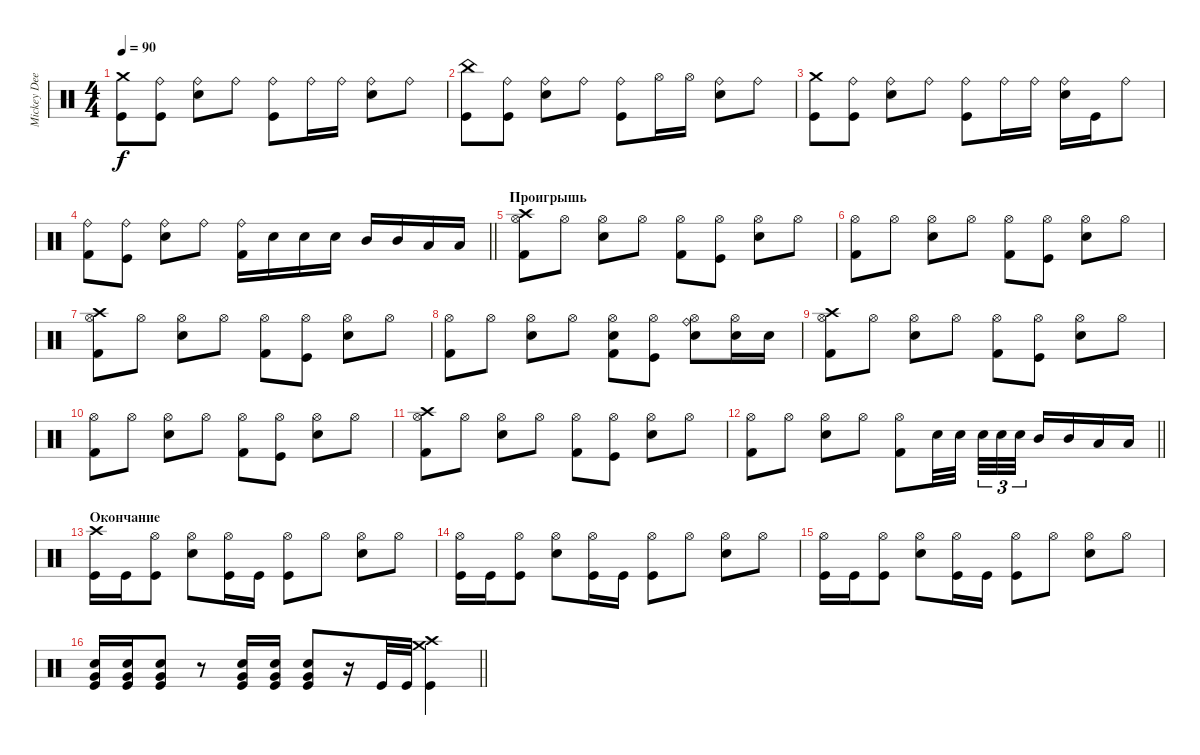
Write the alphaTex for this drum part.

\track ("Mickey Dee" "Mickey Dee") {instrument percussion}
\staff {score}
\articulation defaults
\ts (4 4)
\tempo 90
\clef neutral
\ks c
("Kick (hit)" "Crash medium (hit)").8{dy f} ("Kick (hit)" "Ride (bell)").8 ("Ride (bell)" "Snare (hit) 2").8 "Ride (bell)".8 ("Ride (bell)" "Kick (hit)").8 "Ride (bell)".16 "Ride (bell)".16 ("Ride (bell)" "Snare (hit) 2").8 "Ride (bell)".8 |
("Kick (hit)" "China (hit)").8 ("Kick (hit)" "Ride (bell)").8 ("Ride (bell)" "Snare (hit) 2").8 "Ride (bell)".8 ("Ride (bell)" "Kick (hit)").8 "Hi-Hat (open)".16 "Hi-Hat (open)".16 ("Ride (bell)" "Snare (hit) 2").8 "Ride (bell)".8 |
("Kick (hit)" "Crash medium (hit)").8 ("Kick (hit)" "Ride (bell)").8 ("Ride (bell)" "Snare (hit) 2").8 "Ride (bell)".8 ("Ride (bell)" "Kick (hit)").8 "Ride (bell)".16 "Ride (bell)".16 ("Ride (bell)" "Snare (hit) 2").16 "Kick (hit)".16 "Ride (bell)".8 |
\barLineRight lightlight
("Ride (bell)" "Kick (hit) 2").8 ("Kick (hit)" "Ride (bell)").8 ("Ride (bell)" "Snare (hit) 2").8 "Ride (bell)".8 ("Ride (bell)" "Kick (hit) 2").16 "Snare (hit) 2".16 "Snare (hit) 2".16 "Snare (hit) 2".16 "Mid Tom (hit)".16 "Mid Tom (hit)".16 "Low Tom (hit)".16 "Low Tom (hit)".16 |
\section ("" "Проигрышь")
("Crash high (hit)" "Hi-Hat (open)" "Kick (hit) 2").8 "Hi-Hat (open)".8 ("Hi-Hat (open)" "Snare (hit) 2").8 "Hi-Hat (open)".8 ("Hi-Hat (open)" "Kick (hit) 2").8 ("Kick (hit)" "Hi-Hat (open)").8 ("Hi-Hat (open)" "Snare (hit) 2").8 "Hi-Hat (open)".8 |
("Hi-Hat (open)" "Kick (hit) 2").8 "Hi-Hat (open)".8 ("Hi-Hat (open)" "Snare (hit) 2").8 "Hi-Hat (open)".8 ("Hi-Hat (open)" "Kick (hit) 2").8 ("Kick (hit)" "Hi-Hat (open)").8 ("Hi-Hat (open)" "Snare (hit) 2").8 "Hi-Hat (open)".8 |
("Crash high (hit)" "Hi-Hat (open)" "Kick (hit) 2").8 "Hi-Hat (open)".8 ("Hi-Hat (open)" "Snare (hit) 2").8 "Hi-Hat (open)".8 ("Hi-Hat (open)" "Kick (hit) 2").8 ("Kick (hit)" "Hi-Hat (open)").8 ("Hi-Hat (open)" "Snare (hit) 2").8 "Hi-Hat (open)".8 |
("Hi-Hat (open)" "Kick (hit) 2").8 "Hi-Hat (open)".8 ("Hi-Hat (open)" "Snare (hit) 2").8 "Hi-Hat (open)".8 ("Snare (hit) 2" "Hi-Hat (open)" "Kick (hit) 2").8 ("Kick (hit)" "Hi-Hat (open)").8 ("Ride (bell)" "Hi-Hat (open)" "Snare (hit) 2").8 ("Hi-Hat (open)" "Snare (hit) 2").16 "Snare (hit) 2".16 |
("Crash high (hit)" "Hi-Hat (open)" "Kick (hit) 2").8 "Hi-Hat (open)".8 ("Hi-Hat (open)" "Snare (hit) 2").8 "Hi-Hat (open)".8 ("Hi-Hat (open)" "Kick (hit) 2").8 ("Kick (hit)" "Hi-Hat (open)").8 ("Hi-Hat (open)" "Snare (hit) 2").8 "Hi-Hat (open)".8 |
("Hi-Hat (open)" "Kick (hit) 2").8 "Hi-Hat (open)".8 ("Hi-Hat (open)" "Snare (hit) 2").8 "Hi-Hat (open)".8 ("Hi-Hat (open)" "Kick (hit) 2").8 ("Kick (hit)" "Hi-Hat (open)").8 ("Hi-Hat (open)" "Snare (hit) 2").8 "Hi-Hat (open)".8 |
("Crash high (hit)" "Hi-Hat (open)" "Kick (hit) 2").8 "Hi-Hat (open)".8 ("Hi-Hat (open)" "Snare (hit) 2").8 "Hi-Hat (open)".8 ("Hi-Hat (open)" "Kick (hit) 2").8 ("Kick (hit)" "Hi-Hat (open)").8 ("Hi-Hat (open)" "Snare (hit) 2").8 "Hi-Hat (open)".8 |
\barLineRight lightlight
("Hi-Hat (open)" "Kick (hit) 2").8 "Hi-Hat (open)".8 ("Hi-Hat (open)" "Snare (hit) 2").8 "Hi-Hat (open)".8 ("Hi-Hat (open)" "Kick (hit) 2").8 "Snare (hit) 2".32 "Snare (hit) 2".32{beam splitsecondary} "Snare (hit) 2".32{tu (3 2)} "Snare (hit) 2".32{tu (3 2)} "Snare (hit) 2".32{tu (3 2)} "Mid Tom (hit)".16 "Mid Tom (hit)".16 "Low Tom (hit)".16 "Low Tom (hit)".16 |
\section ("" "Окончание")
("Kick (hit)" "Crash high (hit)").16 "Kick (hit)".16 ("Kick (hit)" "Hi-Hat (open)").8 ("Snare (hit) 2" "Hi-Hat (open)").8 ("Kick (hit)" "Hi-Hat (open)").16 "Kick (hit)".16 ("Kick (hit)" "Hi-Hat (open)").8 "Hi-Hat (open)".8 ("Hi-Hat (open)" "Snare (hit) 2").8 "Hi-Hat (open)".8 |
("Kick (hit)" "Hi-Hat (open)").16 "Kick (hit)".16 ("Kick (hit)" "Hi-Hat (open)").8 ("Snare (hit) 2" "Hi-Hat (open)").8 ("Kick (hit)" "Hi-Hat (open)").16 "Kick (hit)".16 ("Kick (hit)" "Hi-Hat (open)").8 "Hi-Hat (open)".8 ("Hi-Hat (open)" "Snare (hit) 2").8 "Hi-Hat (open)".8 |
("Kick (hit)" "Hi-Hat (open)").16 "Kick (hit)".16 ("Kick (hit)" "Hi-Hat (open)").8 ("Snare (hit) 2" "Hi-Hat (open)").8 ("Kick (hit)" "Hi-Hat (open)").16 "Kick (hit)".16 ("Kick (hit)" "Hi-Hat (open)").8 "Hi-Hat (open)".8 ("Hi-Hat (open)" "Snare (hit) 2").8 "Hi-Hat (open)".8 |
\barLineRight lightlight
("Kick (hit)" "Snare (hit) 2" "Very Low Tom (hit)").16 ("Kick (hit)" "Snare (hit) 2" "Very Low Tom (hit)").16 ("Kick (hit)" "Snare (hit) 2" "Very Low Tom (hit)").8 r.8 ("Kick (hit)" "Snare (hit) 2" "Very Low Tom (hit)").16 ("Kick (hit)" "Snare (hit) 2" "Very Low Tom (hit)").16 ("Kick (hit)" "Snare (hit) 2" "Very Low Tom (hit)").8 r.16 "Kick (hit)".32 "Kick (hit)".32 ("Kick (hit)" "Crash high (hit)" "Crash medium (hit)").4
